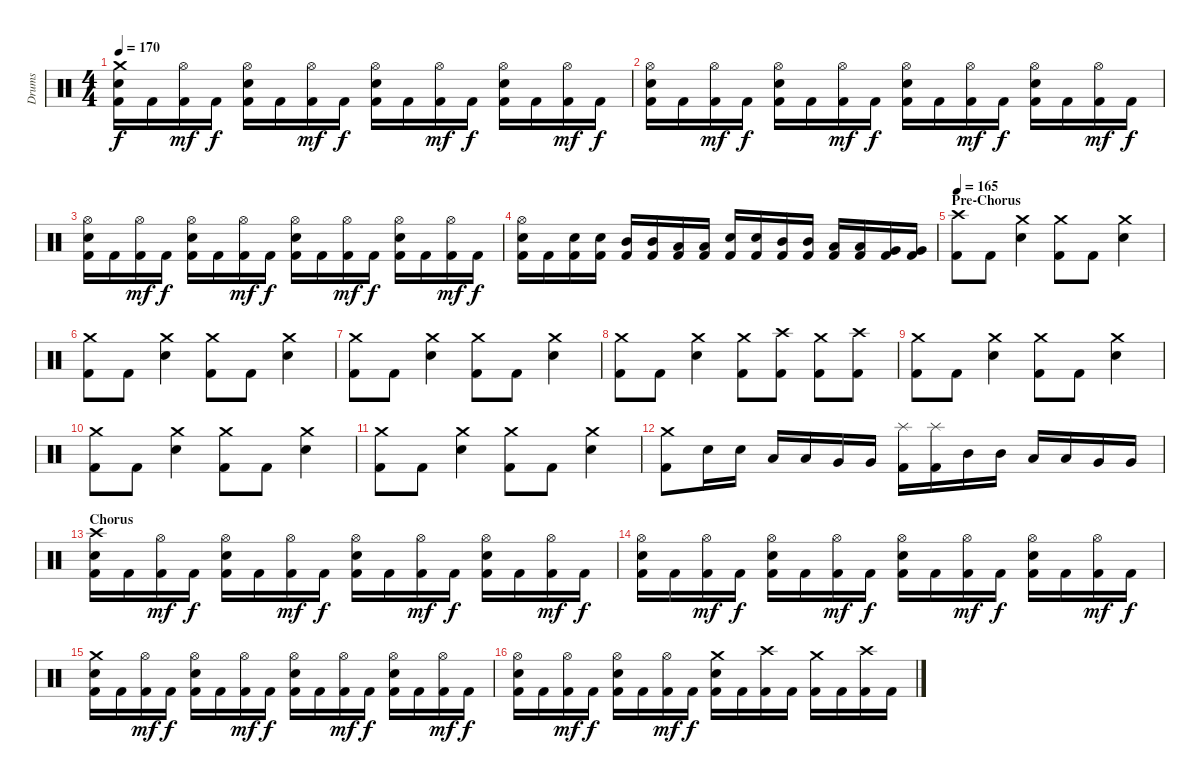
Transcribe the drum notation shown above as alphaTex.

\track ("Drums" "Drums") {instrument percussion}
\staff {score}
\articulation defaults
\ts (4 4)
\tempo 170
\clef neutral
\ks c
("Kick (hit) 2" "Electric Snare (hit)" "Crash medium (hit)").16{dy f} "Kick (hit) 2".16 ("Kick (hit) 2" "Hi-Hat (open)").16{dy mf} "Kick (hit) 2".16{dy f} ("Kick (hit) 2" "Electric Snare (hit)" "Hi-Hat (open)").16 "Kick (hit) 2".16 ("Kick (hit) 2" "Hi-Hat (open)").16{dy mf} "Kick (hit) 2".16{dy f} ("Kick (hit) 2" "Electric Snare (hit)" "Hi-Hat (open)").16 "Kick (hit) 2".16 ("Kick (hit) 2" "Hi-Hat (open)").16{dy mf} "Kick (hit) 2".16{dy f} ("Kick (hit) 2" "Electric Snare (hit)" "Hi-Hat (open)").16 "Kick (hit) 2".16 ("Kick (hit) 2" "Hi-Hat (open)").16{dy mf} "Kick (hit) 2".16{dy f} |
("Kick (hit) 2" "Electric Snare (hit)" "Hi-Hat (open)").16 "Kick (hit) 2".16 ("Kick (hit) 2" "Hi-Hat (open)").16{dy mf} "Kick (hit) 2".16{dy f} ("Kick (hit) 2" "Electric Snare (hit)" "Hi-Hat (open)").16 "Kick (hit) 2".16 ("Kick (hit) 2" "Hi-Hat (open)").16{dy mf} "Kick (hit) 2".16{dy f} ("Kick (hit) 2" "Electric Snare (hit)" "Hi-Hat (open)").16 "Kick (hit) 2".16 ("Kick (hit) 2" "Hi-Hat (open)").16{dy mf} "Kick (hit) 2".16{dy f} ("Kick (hit) 2" "Electric Snare (hit)" "Hi-Hat (open)").16 "Kick (hit) 2".16 ("Kick (hit) 2" "Hi-Hat (open)").16{dy mf} "Kick (hit) 2".16{dy f} |
("Kick (hit) 2" "Electric Snare (hit)" "Hi-Hat (open)").16 "Kick (hit) 2".16 ("Kick (hit) 2" "Hi-Hat (open)").16{dy mf} "Kick (hit) 2".16{dy f} ("Kick (hit) 2" "Electric Snare (hit)" "Hi-Hat (open)").16 "Kick (hit) 2".16 ("Kick (hit) 2" "Hi-Hat (open)").16{dy mf} "Kick (hit) 2".16{dy f} ("Kick (hit) 2" "Electric Snare (hit)" "Hi-Hat (open)").16 "Kick (hit) 2".16 ("Kick (hit) 2" "Hi-Hat (open)").16{dy mf} "Kick (hit) 2".16{dy f} ("Kick (hit) 2" "Electric Snare (hit)" "Hi-Hat (open)").16 "Kick (hit) 2".16 ("Kick (hit) 2" "Hi-Hat (open)").16{dy mf} "Kick (hit) 2".16{dy f} |
("Kick (hit) 2" "Electric Snare (hit)" "Hi-Hat (open)").16 "Kick (hit) 2".16 ("Kick (hit) 2" "Electric Snare (hit)").16 ("Kick (hit) 2" "Electric Snare (hit)").16 ("Kick (hit) 2" "Mid Tom (hit)").16 ("Kick (hit) 2" "Mid Tom (hit)").16 ("Kick (hit) 2" "Low Tom (hit)").16 ("Kick (hit) 2" "Low Tom (hit)").16 ("Kick (hit) 2" "Electric Snare (hit)").16 ("Kick (hit) 2" "Electric Snare (hit)").16 ("Kick (hit) 2" "Mid Tom (hit)").16 ("Kick (hit) 2" "Mid Tom (hit)").16 ("Kick (hit) 2" "Low Tom (hit)").16 ("Kick (hit) 2" "Low Tom (hit)").16 ("Kick (hit) 2" "Very Low Tom (hit)").16 ("Kick (hit) 2" "Very Low Tom (hit)").16 |
\section ("" "Pre-Chorus")
\tempo 165
("Kick (hit) 2" "Crash high (hit)").8 "Kick (hit) 2".8 ("Electric Snare (hit)" "Crash medium (hit)").4 ("Kick (hit) 2" "Crash medium (hit)").8 "Kick (hit) 2".8 ("Electric Snare (hit)" "Crash medium (hit)").4 |
("Kick (hit) 2" "Crash medium (hit)").8 "Kick (hit) 2".8 ("Electric Snare (hit)" "Crash medium (hit)").4 ("Kick (hit) 2" "Crash medium (hit)").8 "Kick (hit) 2".8 ("Electric Snare (hit)" "Crash medium (hit)").4 |
("Kick (hit) 2" "Crash medium (hit)").8 "Kick (hit) 2".8 ("Electric Snare (hit)" "Crash medium (hit)").4 ("Kick (hit) 2" "Crash medium (hit)").8 "Kick (hit) 2".8 ("Electric Snare (hit)" "Crash medium (hit)").4 |
("Kick (hit) 2" "Crash medium (hit)").8 "Kick (hit) 2".8 ("Electric Snare (hit)" "Crash medium (hit)").4 ("Kick (hit) 2" "Crash medium (hit)").8 ("Kick (hit) 2" "Crash high (hit)").8 ("Kick (hit) 2" "Crash medium (hit)").8 ("Kick (hit) 2" "Crash high (hit)").8 |
("Kick (hit) 2" "Crash medium (hit)").8 "Kick (hit) 2".8 ("Electric Snare (hit)" "Crash medium (hit)").4 ("Kick (hit) 2" "Crash medium (hit)").8 "Kick (hit) 2".8 ("Electric Snare (hit)" "Crash medium (hit)").4 |
("Kick (hit) 2" "Crash medium (hit)").8 "Kick (hit) 2".8 ("Electric Snare (hit)" "Crash medium (hit)").4 ("Kick (hit) 2" "Crash medium (hit)").8 "Kick (hit) 2".8 ("Electric Snare (hit)" "Crash medium (hit)").4 |
("Kick (hit) 2" "Crash medium (hit)").8 "Kick (hit) 2".8 ("Electric Snare (hit)" "Crash medium (hit)").4 ("Kick (hit) 2" "Crash medium (hit)").8 "Kick (hit) 2".8 ("Electric Snare (hit)" "Crash medium (hit)").4 |
("Kick (hit) 2" "Crash medium (hit)").8 "Electric Snare (hit)".16 "Electric Snare (hit)".16 "Low Tom (hit)".16 "Low Tom (hit)".16 "Very Low Tom (hit)".16 "Very Low Tom (hit)".16 ("Kick (hit) 2" "Splash (hit)").16 ("Kick (hit) 2" "Splash (hit)").16 "Mid Tom (hit)".16 "Mid Tom (hit)".16 "Low Tom (hit)".16 "Low Tom (hit)".16 "Very Low Tom (hit)".16 "Very Low Tom (hit)".16 |
\section ("" "Chorus")
("Kick (hit) 2" "Electric Snare (hit)" "Crash high (hit)").16 "Kick (hit) 2".16 ("Kick (hit) 2" "Hi-Hat (open)").16{dy mf} "Kick (hit) 2".16{dy f} ("Kick (hit) 2" "Electric Snare (hit)" "Hi-Hat (open)").16 "Kick (hit) 2".16 ("Kick (hit) 2" "Hi-Hat (open)").16{dy mf} "Kick (hit) 2".16{dy f} ("Kick (hit) 2" "Electric Snare (hit)" "Hi-Hat (open)").16 "Kick (hit) 2".16 ("Kick (hit) 2" "Hi-Hat (open)").16{dy mf} "Kick (hit) 2".16{dy f} ("Kick (hit) 2" "Electric Snare (hit)" "Hi-Hat (open)").16 "Kick (hit) 2".16 ("Kick (hit) 2" "Hi-Hat (open)").16{dy mf} "Kick (hit) 2".16{dy f} |
("Kick (hit) 2" "Electric Snare (hit)" "Hi-Hat (open)").16 "Kick (hit) 2".16 ("Kick (hit) 2" "Hi-Hat (open)").16{dy mf} "Kick (hit) 2".16{dy f} ("Kick (hit) 2" "Electric Snare (hit)" "Hi-Hat (open)").16 "Kick (hit) 2".16 ("Kick (hit) 2" "Hi-Hat (open)").16{dy mf} "Kick (hit) 2".16{dy f} ("Kick (hit) 2" "Electric Snare (hit)" "Hi-Hat (open)").16 "Kick (hit) 2".16 ("Kick (hit) 2" "Hi-Hat (open)").16{dy mf} "Kick (hit) 2".16{dy f} ("Kick (hit) 2" "Electric Snare (hit)" "Hi-Hat (open)").16 "Kick (hit) 2".16 ("Kick (hit) 2" "Hi-Hat (open)").16{dy mf} "Kick (hit) 2".16{dy f} |
("Kick (hit) 2" "Electric Snare (hit)" "Crash medium (hit)").16 "Kick (hit) 2".16 ("Kick (hit) 2" "Hi-Hat (open)").16{dy mf} "Kick (hit) 2".16{dy f} ("Kick (hit) 2" "Electric Snare (hit)" "Hi-Hat (open)").16 "Kick (hit) 2".16 ("Kick (hit) 2" "Hi-Hat (open)").16{dy mf} "Kick (hit) 2".16{dy f} ("Kick (hit) 2" "Electric Snare (hit)" "Hi-Hat (open)").16 "Kick (hit) 2".16 ("Kick (hit) 2" "Hi-Hat (open)").16{dy mf} "Kick (hit) 2".16{dy f} ("Kick (hit) 2" "Electric Snare (hit)" "Hi-Hat (open)").16 "Kick (hit) 2".16 ("Kick (hit) 2" "Hi-Hat (open)").16{dy mf} "Kick (hit) 2".16{dy f} |
("Kick (hit) 2" "Electric Snare (hit)" "Hi-Hat (open)").16 "Kick (hit) 2".16 ("Kick (hit) 2" "Hi-Hat (open)").16{dy mf} "Kick (hit) 2".16{dy f} ("Kick (hit) 2" "Electric Snare (hit)" "Hi-Hat (open)").16 "Kick (hit) 2".16 ("Kick (hit) 2" "Hi-Hat (open)").16{dy mf} "Kick (hit) 2".16{dy f} ("Kick (hit) 2" "Electric Snare (hit)" "Crash medium (hit)").16 "Kick (hit) 2".16 ("Kick (hit) 2" "Crash high (hit)").16 "Kick (hit) 2".16 ("Kick (hit) 2" "Crash medium (hit)").16 "Kick (hit) 2".16 ("Kick (hit) 2" "Crash high (hit)").16 "Kick (hit) 2".16
